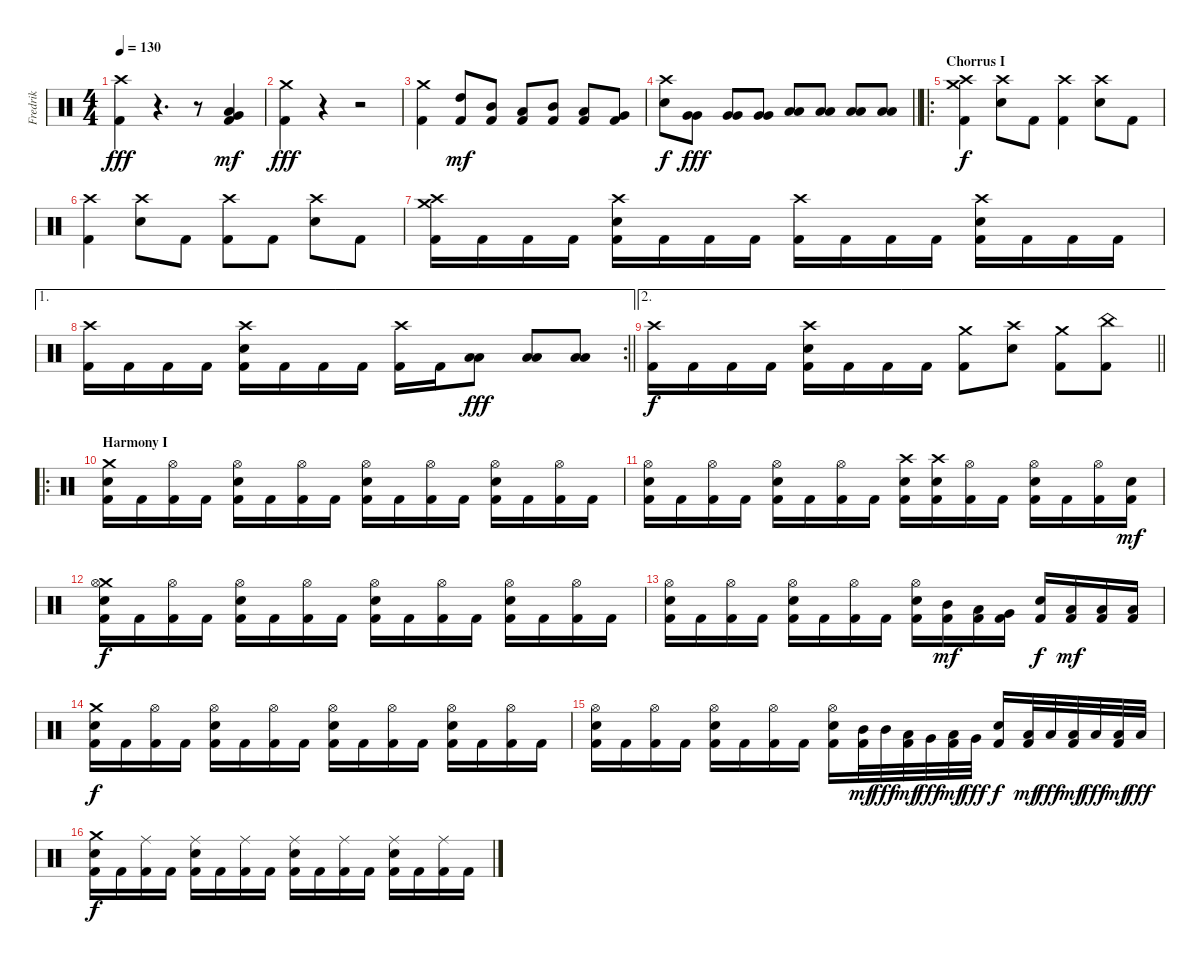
\track ("Fredrik" "Fredrik") {instrument percussion}
\staff {score}
\articulation defaults
\ts (4 4)
\tempo 130
\clef neutral
\ks c
("Crash high (hit)" "Kick (hit) 2").4{dy fff} r.4{d} r.8 ("Very Low Tom (hit)" "Low Floor Tom (hit)" "Kick (hit) 2").4{dy mf} |
("Crash medium (hit)" "Kick (hit) 2").4{dy fff} r.4 r.2 |
("Crash medium (hit)" "Kick (hit) 2").4 ("High Tom (hit)" "Kick (hit) 2").8{dy mf} ("Mid Tom (hit)" "Kick (hit) 2").8 ("Low Tom (hit)" "Kick (hit) 2").8 ("Mid Tom (hit)" "Kick (hit) 2").8 ("Low Tom (hit)" "Kick (hit) 2").8 ("Very Low Tom (hit)" "Kick (hit) 2").8 |
\barLineRight lightlight
("Crash high (hit)" "Electric Snare (hit)").8{dy f} ("Very Low Tom (hit)" "Very Low Tom (hit)").8{dy fff} ("Very Low Tom (hit)" "Very Low Tom (hit)").8 ("Very Low Tom (hit)" "Very Low Tom (hit)").8 ("Low Floor Tom (hit)" "Low Floor Tom (hit)").8 ("Low Floor Tom (hit)" "Low Floor Tom (hit)").8 ("Low Floor Tom (hit)" "Low Floor Tom (hit)").8 ("Low Floor Tom (hit)" "Low Floor Tom (hit)").8 |
\ro
\section ("" "Chorrus I")
("Crash medium (hit)" "Crash high (hit)" "Kick (hit) 2").4{dy f} ("Crash high (hit)" "Electric Snare (hit)").8 "Kick (hit) 2".8 ("Crash high (hit)" "Kick (hit) 2").4 ("Crash high (hit)" "Electric Snare (hit)").8 "Kick (hit) 2".8 |
("Crash high (hit)" "Kick (hit) 2").4 ("Crash high (hit)" "Electric Snare (hit)").8 "Kick (hit) 2".8 ("Crash high (hit)" "Kick (hit) 2").8 "Kick (hit) 2".8 ("Crash high (hit)" "Electric Snare (hit)").8 "Kick (hit) 2".8 |
("Crash medium (hit)" "Crash high (hit)" "Kick (hit) 2").16 "Kick (hit) 2".16 "Kick (hit) 2".16 "Kick (hit) 2".16 ("Crash high (hit)" "Electric Snare (hit)" "Kick (hit) 2").16 "Kick (hit) 2".16 "Kick (hit) 2".16 "Kick (hit) 2".16 ("Crash high (hit)" "Kick (hit) 2").16 "Kick (hit) 2".16 "Kick (hit) 2".16 "Kick (hit) 2".16 ("Crash high (hit)" "Electric Snare (hit)" "Kick (hit) 2").16 "Kick (hit) 2".16 "Kick (hit) 2".16 "Kick (hit) 2".16 |
\ae 1
\rc 2
\barLineRight lightlight
("Crash high (hit)" "Kick (hit) 2").16 "Kick (hit) 2".16 "Kick (hit) 2".16 "Kick (hit) 2".16 ("Crash high (hit)" "Electric Snare (hit)" "Kick (hit) 2").16 "Kick (hit) 2".16 "Kick (hit) 2".16 "Kick (hit) 2".16 ("Crash high (hit)" "Kick (hit) 2").16 "Kick (hit) 2".16 ("Low Tom (hit)" "Low Floor Tom (hit)").8{dy fff} ("Low Tom (hit)" "Low Floor Tom (hit)").8 ("Low Tom (hit)" "Low Floor Tom (hit)").8 |
\ae 2
\barLineRight lightlight
("Crash high (hit)" "Kick (hit) 2").16{dy f} "Kick (hit) 2".16 "Kick (hit) 2".16 "Kick (hit) 2".16 ("Crash high (hit)" "Electric Snare (hit)" "Kick (hit) 2").16 "Kick (hit) 2".16 "Kick (hit) 2".16 "Kick (hit) 2".16 ("Crash medium (hit)" "Kick (hit) 2").8 ("Crash high (hit)" "Electric Snare (hit)").8 ("Crash medium (hit)" "Kick (hit) 2").8 ("China (hit)" "Kick (hit) 2").8 |
\ro
\section ("" "Harmony I")
("Crash medium (hit)" "Electric Snare (hit)" "Kick (hit) 2").16 "Kick (hit) 2".16 ("Hi-Hat (open)" "Kick (hit) 2").16 "Kick (hit) 2".16 ("Hi-Hat (open)" "Electric Snare (hit)" "Kick (hit) 2").16 "Kick (hit) 2".16 ("Hi-Hat (open)" "Kick (hit) 2").16 "Kick (hit) 2".16 ("Hi-Hat (open)" "Electric Snare (hit)" "Kick (hit) 2").16 "Kick (hit) 2".16 ("Hi-Hat (open)" "Kick (hit) 2").16 "Kick (hit) 2".16 ("Hi-Hat (open)" "Electric Snare (hit)" "Kick (hit) 2").16 "Kick (hit) 2".16 ("Hi-Hat (open)" "Kick (hit) 2").16 "Kick (hit) 2".16 |
("Hi-Hat (open)" "Electric Snare (hit)" "Kick (hit) 2").16 "Kick (hit) 2".16 ("Hi-Hat (open)" "Kick (hit) 2").16 "Kick (hit) 2".16 ("Hi-Hat (open)" "Electric Snare (hit)" "Kick (hit) 2").16 "Kick (hit) 2".16 ("Hi-Hat (open)" "Kick (hit) 2").16 "Kick (hit) 2".16 ("Crash high (hit)" "Electric Snare (hit)" "Kick (hit) 2").16 ("Crash high (hit)" "Electric Snare (hit)" "Kick (hit) 2").16 ("Hi-Hat (open)" "Kick (hit) 2").16 "Kick (hit) 2".16 ("Hi-Hat (open)" "Electric Snare (hit)" "Kick (hit) 2").16 "Kick (hit) 2".16 ("Hi-Hat (open)" "Kick (hit) 2").16 ("Electric Snare (hit)" "Kick (hit) 2").16{dy mf} |
("Crash medium (hit)" "Hi-Hat (open)" "Electric Snare (hit)" "Kick (hit) 2").16{dy f} "Kick (hit) 2".16 ("Hi-Hat (open)" "Kick (hit) 2").16 "Kick (hit) 2".16 ("Hi-Hat (open)" "Electric Snare (hit)" "Kick (hit) 2").16 "Kick (hit) 2".16 ("Hi-Hat (open)" "Kick (hit) 2").16 "Kick (hit) 2".16 ("Hi-Hat (open)" "Electric Snare (hit)" "Kick (hit) 2").16 "Kick (hit) 2".16 ("Hi-Hat (open)" "Kick (hit) 2").16 "Kick (hit) 2".16 ("Hi-Hat (open)" "Electric Snare (hit)" "Kick (hit) 2").16 "Kick (hit) 2".16 ("Hi-Hat (open)" "Kick (hit) 2").16 "Kick (hit) 2".16 |
("Hi-Hat (open)" "Electric Snare (hit)" "Kick (hit) 2").16 "Kick (hit) 2".16 ("Hi-Hat (open)" "Kick (hit) 2").16 "Kick (hit) 2".16 ("Hi-Hat (open)" "Electric Snare (hit)" "Kick (hit) 2").16 "Kick (hit) 2".16 ("Hi-Hat (open)" "Kick (hit) 2").16 "Kick (hit) 2".16 ("Hi-Hat (open)" "Electric Snare (hit)" "Kick (hit) 2").16 ("Mid Tom (hit)" "Kick (hit) 2").16{dy mf} ("Low Tom (hit)" "Kick (hit) 2").16 ("Very Low Tom (hit)" "Kick (hit) 2").16 ("Electric Snare (hit)" "Kick (hit) 2").16{dy f} ("Low Floor Tom (hit)" "Kick (hit) 2").16{dy mf} ("Low Floor Tom (hit)" "Kick (hit) 2").16 ("Low Floor Tom (hit)" "Kick (hit) 2").16 |
("Crash medium (hit)" "Electric Snare (hit)" "Kick (hit) 2").16{dy f} "Kick (hit) 2".16 ("Hi-Hat (open)" "Kick (hit) 2").16 "Kick (hit) 2".16 ("Hi-Hat (open)" "Electric Snare (hit)" "Kick (hit) 2").16 "Kick (hit) 2".16 ("Hi-Hat (open)" "Kick (hit) 2").16 "Kick (hit) 2".16 ("Hi-Hat (open)" "Electric Snare (hit)" "Kick (hit) 2").16 "Kick (hit) 2".16 ("Hi-Hat (open)" "Kick (hit) 2").16 "Kick (hit) 2".16 ("Hi-Hat (open)" "Electric Snare (hit)" "Kick (hit) 2").16 "Kick (hit) 2".16 ("Hi-Hat (open)" "Kick (hit) 2").16 "Kick (hit) 2".16 |
("Hi-Hat (open)" "Electric Snare (hit)" "Kick (hit) 2").16 "Kick (hit) 2".16 ("Hi-Hat (open)" "Kick (hit) 2").16 "Kick (hit) 2".16 ("Hi-Hat (open)" "Electric Snare (hit)" "Kick (hit) 2").16 "Kick (hit) 2".16 ("Hi-Hat (open)" "Kick (hit) 2").16 "Kick (hit) 2".16 ("Hi-Hat (open)" "Electric Snare (hit)" "Kick (hit) 2").16 ("Mid Tom (hit)" "Kick (hit) 2").32{dy mf} "Mid Tom (hit)".32{dy fff} ("Low Tom (hit)" "Kick (hit) 2").32{dy mf} "Very Low Tom (hit)".32{dy fff} ("Low Tom (hit)" "Kick (hit) 2").32{dy mf} "Very Low Tom (hit)".32{dy fff} ("Electric Snare (hit)" "Kick (hit) 2").16{dy f} ("Low Floor Tom (hit)" "Kick (hit) 2").32{dy mf} "Low Floor Tom (hit)".32{dy fff} ("Low Floor Tom (hit)" "Kick (hit) 2").32{dy mf} "Low Floor Tom (hit)".32{dy fff} ("Low Floor Tom (hit)" "Kick (hit) 2").32{dy mf} "Low Floor Tom (hit)".32{dy fff} |
("Crash medium (hit)" "Electric Snare (hit)" "Kick (hit) 2").16{dy f} "Kick (hit) 2".16 ("Ride (middle)" "Kick (hit) 2").16 "Kick (hit) 2".16 ("Ride (middle)" "Electric Snare (hit)" "Kick (hit) 2").16 "Kick (hit) 2".16 ("Ride (middle)" "Kick (hit) 2").16 "Kick (hit) 2".16 ("Ride (middle)" "Electric Snare (hit)" "Kick (hit) 2").16 "Kick (hit) 2".16 ("Ride (middle)" "Kick (hit) 2").16 "Kick (hit) 2".16 ("Ride (middle)" "Electric Snare (hit)" "Kick (hit) 2").16 "Kick (hit) 2".16 ("Ride (middle)" "Kick (hit) 2").16 "Kick (hit) 2".16
